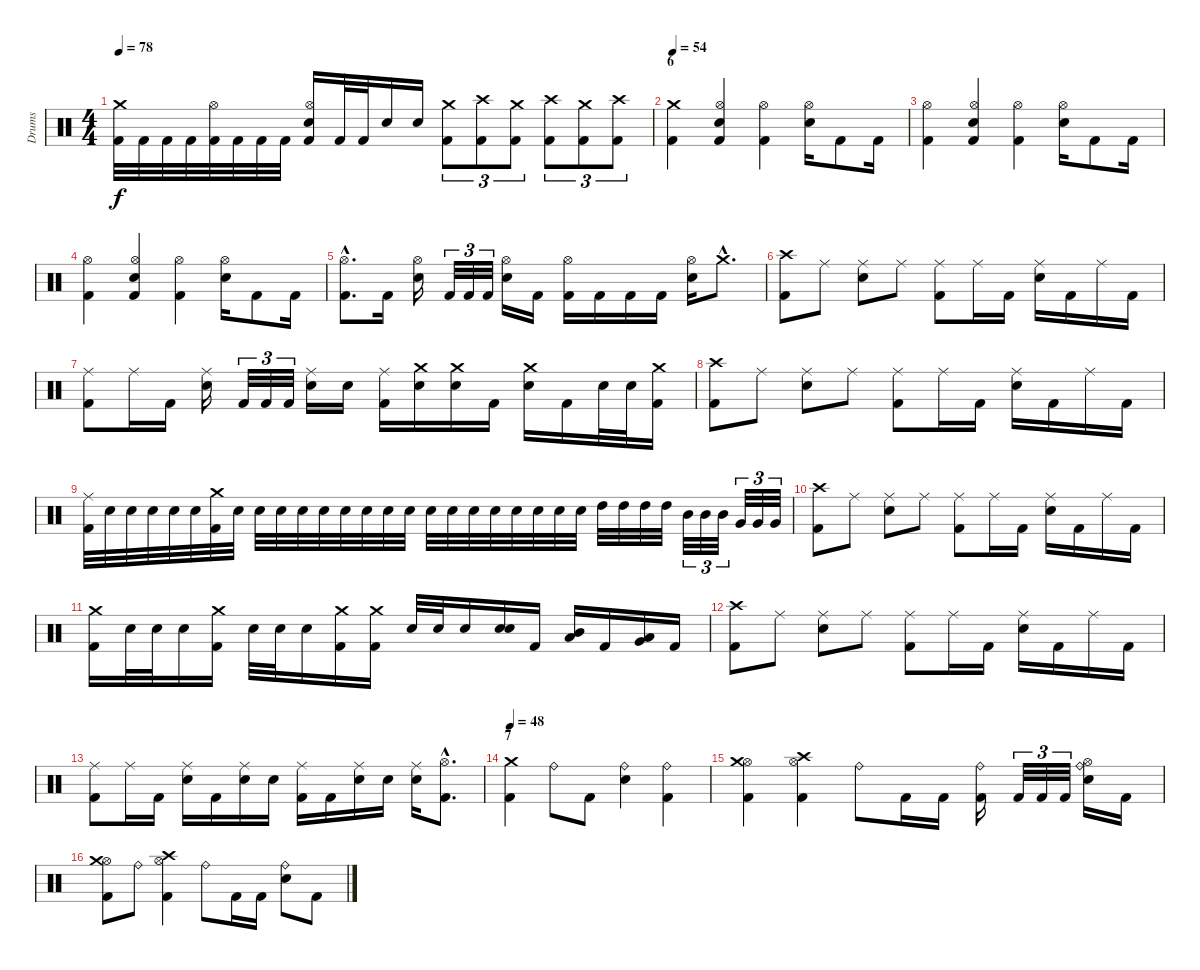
\track ("Drums" "Drums") {instrument percussion}
\staff {score}
\articulation defaults
\ts (4 4)
\tempo 78
\clef neutral
\ks c
("Crash medium (hit)" "Kick (hit) 2").32{dy f} "Kick (hit) 2".32 "Kick (hit) 2".32 "Kick (hit) 2".32 ("Hi-Hat (open)" "Kick (hit) 2").32 "Kick (hit) 2".32 "Kick (hit) 2".32 "Kick (hit) 2".32 ("Hi-Hat (open)" "Electric Snare (hit)" "Kick (hit) 2").16 "Kick (hit) 2".32 "Kick (hit) 2".32 "Electric Snare (hit)".16 "Electric Snare (hit)".16 ("Crash medium (hit)" "Kick (hit) 2").8{tu (3 2)} ("Crash high (hit)" "Kick (hit) 2").8{tu (3 2)} ("Crash medium (hit)" "Kick (hit) 2").8{tu (3 2)} ("Crash high (hit)" "Kick (hit) 2").8{tu (3 2)} ("Crash medium (hit)" "Kick (hit) 2").8{tu (3 2)} ("Crash high (hit)" "Kick (hit) 2").8{tu (3 2)} |
\section ("" "6")
\tempo 54
("Crash medium (hit)" "Kick (hit) 2").4 ("Hi-Hat (open)" "Electric Snare (hit)" "Kick (hit) 2").4 ("Hi-Hat (open)" "Kick (hit) 2").4 ("Hi-Hat (open)" "Electric Snare (hit)").16 "Kick (hit) 2".8 "Kick (hit) 2".16 |
("Hi-Hat (open)" "Kick (hit) 2").4 ("Hi-Hat (open)" "Electric Snare (hit)" "Kick (hit) 2").4 ("Hi-Hat (open)" "Kick (hit) 2").4 ("Hi-Hat (open)" "Electric Snare (hit)").16 "Kick (hit) 2".8 "Kick (hit) 2".16 |
("Hi-Hat (open)" "Kick (hit) 2").4 ("Hi-Hat (open)" "Electric Snare (hit)" "Kick (hit) 2").4 ("Hi-Hat (open)" "Kick (hit) 2").4 ("Hi-Hat (open)" "Electric Snare (hit)").16 "Kick (hit) 2".8 "Kick (hit) 2".16 |
("Hi-Hat (open)"{hac} "Kick (hit) 2"{hac}).8{d} "Kick (hit) 2".16 ("Hi-Hat (open)" "Electric Snare (hit)").16 "Kick (hit) 2".32{tu (3 2)} "Kick (hit) 2".32{tu (3 2)} "Kick (hit) 2".32{tu (3 2)} ("Hi-Hat (open)" "Electric Snare (hit)").16 "Kick (hit) 2".16 ("Hi-Hat (open)" "Kick (hit) 2").16 "Kick (hit) 2".16 "Kick (hit) 2".16 "Kick (hit) 2".16 ("Hi-Hat (open)" "Electric Snare (hit)").16 "Crash medium (hit)"{hac}.8{d} |
("Crash high (hit)" "Kick (hit) 2").8 "Ride (middle)".8 ("Ride (middle)" "Electric Snare (hit)").8 "Ride (middle)".8 ("Ride (middle)" "Kick (hit) 2").8 "Ride (middle)".16 "Kick (hit) 2".16 ("Ride (middle)" "Electric Snare (hit)").16 "Kick (hit) 2".16 "Ride (middle)".16 "Kick (hit) 2".16 |
("Ride (middle)" "Kick (hit) 2").8 "Ride (middle)".16 "Kick (hit) 2".16 ("Ride (middle)" "Electric Snare (hit)").16 "Kick (hit) 2".32{tu (3 2)} "Kick (hit) 2".32{tu (3 2)} "Kick (hit) 2".32{tu (3 2)} ("Ride (middle)" "Electric Snare (hit)").16 "Electric Snare (hit)".16 ("Ride (middle)" "Kick (hit) 2").16 ("Crash medium (hit)" "Electric Snare (hit)").16 ("Crash medium (hit)" "Electric Snare (hit)").16 "Kick (hit) 2".16 ("Crash medium (hit)" "Electric Snare (hit)").16 "Kick (hit) 2".16 "Electric Snare (hit)".32 "Electric Snare (hit)".32 ("Crash medium (hit)" "Kick (hit) 2").16 |
("Crash high (hit)" "Kick (hit) 2").8 "Ride (middle)".8 ("Ride (middle)" "Electric Snare (hit)").8 "Ride (middle)".8 ("Ride (middle)" "Kick (hit) 2").8 "Ride (middle)".16 "Kick (hit) 2".16 ("Ride (middle)" "Electric Snare (hit)").16 "Kick (hit) 2".16 "Ride (middle)".16 "Kick (hit) 2".16 |
("Ride (middle)" "Kick (hit) 2").32 "Electric Snare (hit)".32 "Electric Snare (hit)".32 "Electric Snare (hit)".32 "Electric Snare (hit)".32 "Electric Snare (hit)".32 ("Crash medium (hit)" "Kick (hit) 2").32 "Electric Snare (hit)".32 "Electric Snare (hit)".32 "Electric Snare (hit)".32 "Electric Snare (hit)".32 "Electric Snare (hit)".32 "Electric Snare (hit)".32 "Electric Snare (hit)".32 "Electric Snare (hit)".32 "Electric Snare (hit)".32 "Electric Snare (hit)".32 "Electric Snare (hit)".32 "Electric Snare (hit)".32 "Electric Snare (hit)".32 "Electric Snare (hit)".32 "Electric Snare (hit)".32 "Electric Snare (hit)".32 "Electric Snare (hit)".32 "High Tom (hit)".32 "High Tom (hit)".32 "High Tom (hit)".32 "High Tom (hit)".32 "Mid Tom (hit)".32{tu (3 2)} "Mid Tom (hit)".32{tu (3 2)} "Mid Tom (hit)".32{tu (3 2)} "Very Low Tom (hit)".32{tu (3 2)} "Very Low Tom (hit)".32{tu (3 2)} "Very Low Tom (hit)".32{tu (3 2)} |
("Crash high (hit)" "Kick (hit) 2").8 "Ride (middle)".8 ("Ride (middle)" "Electric Snare (hit)").8 "Ride (middle)".8 ("Ride (middle)" "Kick (hit) 2").8 "Ride (middle)".16 "Kick (hit) 2".16 ("Ride (middle)" "Electric Snare (hit)").16 "Kick (hit) 2".16 "Ride (middle)".16 "Kick (hit) 2".16 |
("Crash medium (hit)" "Kick (hit) 2").16 "Electric Snare (hit)".32 "Electric Snare (hit)".32 "Electric Snare (hit)".16 ("Crash medium (hit)" "Kick (hit) 2").16 "Electric Snare (hit)".32 "Electric Snare (hit)".32 "Electric Snare (hit)".16 ("Crash medium (hit)" "Kick (hit) 2").16 ("Crash medium (hit)" "Kick (hit) 2").16 "Electric Snare (hit)".32 "Electric Snare (hit)".32 "Electric Snare (hit)".16 ("Electric Snare (hit)" "Electric Snare (hit)").16{bu 480} "Kick (hit) 2".16 ("Mid Tom (hit)" "Low Tom (hit)").16{bu 30} "Kick (hit) 2".16 ("Low Tom (hit)" "Very Low Tom (hit)").16{bu 30} "Kick (hit) 2".16 |
("Crash high (hit)" "Kick (hit) 2").8 "Ride (middle)".8 ("Ride (middle)" "Electric Snare (hit)").8 "Ride (middle)".8 ("Ride (middle)" "Kick (hit) 2").8 "Ride (middle)".16 "Kick (hit) 2".16 ("Ride (middle)" "Electric Snare (hit)").16 "Kick (hit) 2".16 "Ride (middle)".16 "Kick (hit) 2".16 |
("Ride (middle)" "Kick (hit) 2").8 "Ride (middle)".16 "Kick (hit) 2".16 ("Ride (middle)" "Electric Snare (hit)").16 "Kick (hit) 2".16 ("Ride (middle)" "Electric Snare (hit)").16 "Electric Snare (hit)".16 ("Ride (middle)" "Kick (hit) 2").16 "Kick (hit) 2".16 ("Ride (middle)" "Electric Snare (hit)").16 "Electric Snare (hit)".16 ("Ride (middle)" "Electric Snare (hit)").16 ("Hi-Hat (open)"{hac} "Kick (hit) 2"{hac}).8{d} |
\section ("" "7")
\tempo 48
("Crash medium (hit)" "Kick (hit) 2").4 "Ride (bell)".8 "Kick (hit) 2".8 ("Ride (bell)" "Electric Snare (hit)").4 ("Ride (bell)" "Kick (hit) 2").4 |
("Hi-Hat (open)" "Crash medium (hit)" "Kick (hit) 2").4 ("Hi-Hat (open)" "Crash high (hit)" "Kick (hit) 2").4 "Ride (bell)".8 "Kick (hit) 2".16 "Kick (hit) 2".16 ("Ride (bell)" "Kick (hit) 2").16 "Kick (hit) 2".32{tu (3 2)} "Kick (hit) 2".32{tu (3 2)} "Kick (hit) 2".32{tu (3 2)} ("Ride (bell)" "Hi-Hat (open)" "Electric Snare (hit)").16 "Kick (hit) 2".16 |
("Hi-Hat (open)" "Crash medium (hit)" "Kick (hit) 2").8 "Ride (bell)".8 ("Hi-Hat (open)" "Crash high (hit)" "Kick (hit) 2").4 "Ride (bell)".8 "Kick (hit) 2".16 "Kick (hit) 2".16 ("Ride (bell)" "Electric Snare (hit)").8 "Kick (hit) 2".8
